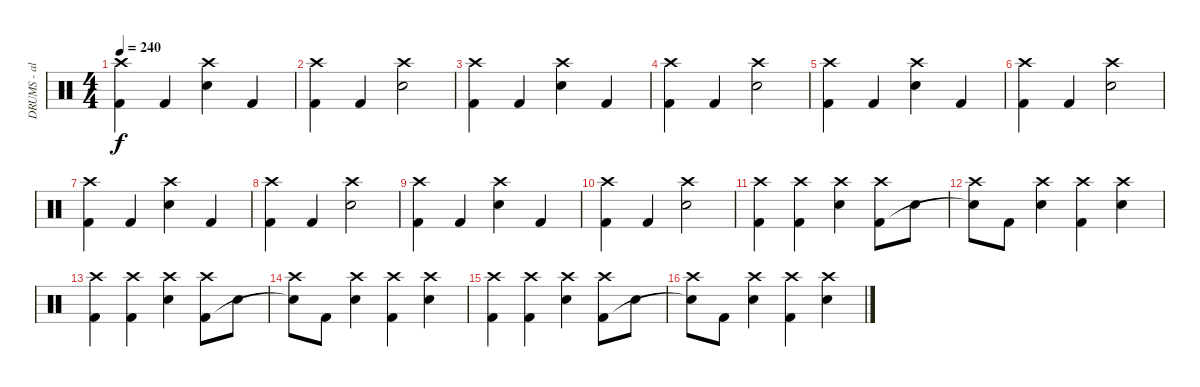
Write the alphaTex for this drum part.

\track ("DRUMS - alastor" "DRUMS - al") {instrument percussion}
\staff {score}
\articulation defaults
\ts (4 4)
\tempo 240
\clef neutral
\ks c
("Crash high (hit)" "Kick (hit) 2").4{dy f} "Kick (hit) 2".4 ("Crash high (hit)" "Snare (hit) 2").4 "Kick (hit) 2".4 |
("Crash high (hit)" "Kick (hit) 2").4 "Kick (hit) 2".4 ("Crash high (hit)" "Snare (hit) 2").2 |
("Crash high (hit)" "Kick (hit) 2").4 "Kick (hit) 2".4 ("Crash high (hit)" "Snare (hit) 2").4 "Kick (hit) 2".4 |
("Crash high (hit)" "Kick (hit) 2").4 "Kick (hit) 2".4 ("Crash high (hit)" "Snare (hit) 2").2 |
("Crash high (hit)" "Kick (hit) 2").4 "Kick (hit) 2".4 ("Crash high (hit)" "Snare (hit) 2").4 "Kick (hit) 2".4 |
("Crash high (hit)" "Kick (hit) 2").4 "Kick (hit) 2".4 ("Crash high (hit)" "Snare (hit) 2").2 |
("Crash high (hit)" "Kick (hit) 2").4 "Kick (hit) 2".4 ("Crash high (hit)" "Snare (hit) 2").4 "Kick (hit) 2".4 |
("Crash high (hit)" "Kick (hit) 2").4 "Kick (hit) 2".4 ("Crash high (hit)" "Snare (hit) 2").2 |
("Crash high (hit)" "Kick (hit) 2").4 "Kick (hit) 2".4 ("Crash high (hit)" "Snare (hit) 2").4 "Kick (hit) 2".4 |
("Crash high (hit)" "Kick (hit) 2").4 "Kick (hit) 2".4 ("Crash high (hit)" "Snare (hit) 2").2 |
("Crash high (hit)" "Kick (hit) 2").4 ("Crash high (hit)" "Kick (hit) 2").4 ("Crash high (hit)" "Snare (hit) 2").4 ("Crash high (hit)" "Kick (hit) 2").8 "Snare (hit) 2".8 |
("Crash high (hit)" "Snare (hit) 2"{t}).8 "Kick (hit) 2".8 ("Crash high (hit)" "Snare (hit) 2").4 ("Crash high (hit)" "Kick (hit) 2").4 ("Crash high (hit)" "Snare (hit) 2").4 |
("Crash high (hit)" "Kick (hit) 2").4 ("Crash high (hit)" "Kick (hit) 2").4 ("Crash high (hit)" "Snare (hit) 2").4 ("Crash high (hit)" "Kick (hit) 2").8 "Snare (hit) 2".8 |
("Crash high (hit)" "Snare (hit) 2"{t}).8 "Kick (hit) 2".8 ("Crash high (hit)" "Snare (hit) 2").4 ("Crash high (hit)" "Kick (hit) 2").4 ("Crash high (hit)" "Snare (hit) 2").4 |
("Crash high (hit)" "Kick (hit) 2").4 ("Crash high (hit)" "Kick (hit) 2").4 ("Crash high (hit)" "Snare (hit) 2").4 ("Crash high (hit)" "Kick (hit) 2").8 "Snare (hit) 2".8 |
("Crash high (hit)" "Snare (hit) 2"{t}).8 "Kick (hit) 2".8 ("Crash high (hit)" "Snare (hit) 2").4 ("Crash high (hit)" "Kick (hit) 2").4 ("Crash high (hit)" "Snare (hit) 2").4
